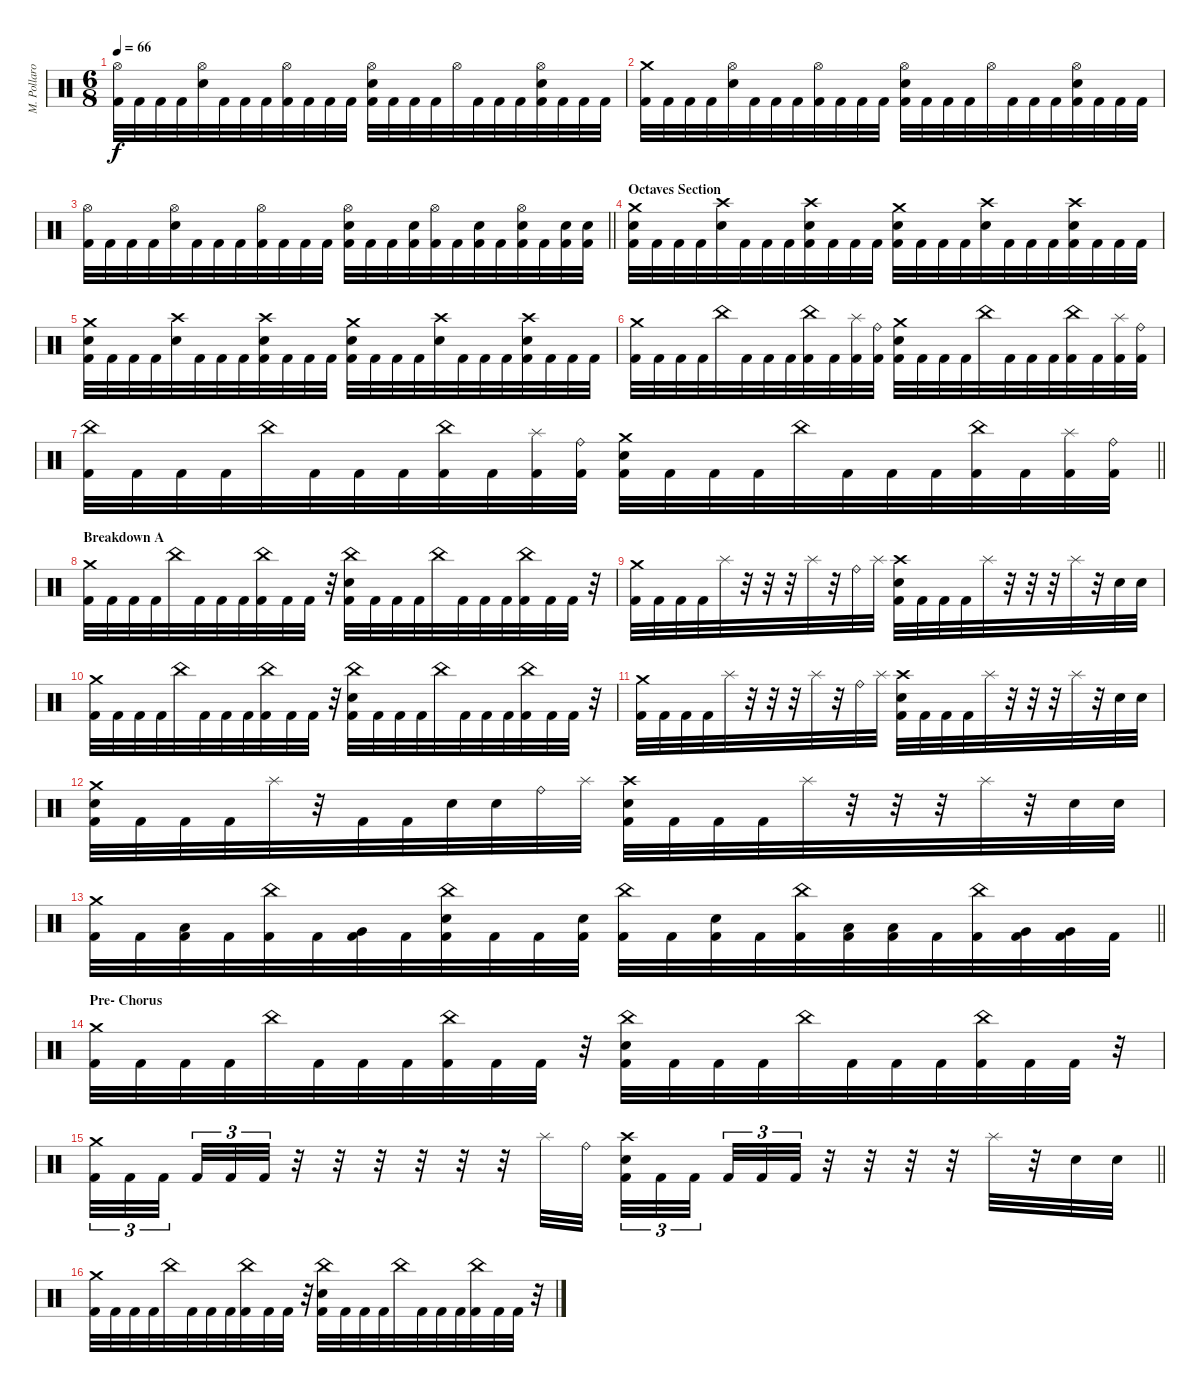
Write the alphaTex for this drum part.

\track ("M. Pollaro" "M. Pollaro") {instrument percussion}
\staff {score}
\articulation defaults
\ts (6 8)
\tempo 66
\clef neutral
\ks aminor
("Hi-Hat (open)" "Kick (hit) 2").32{dy f} "Kick (hit) 2".32 "Kick (hit) 2".32 "Kick (hit) 2".32 ("Hi-Hat (open)" "Snare (hit) 2").32 "Kick (hit) 2".32 "Kick (hit) 2".32 "Kick (hit) 2".32 ("Hi-Hat (open)" "Kick (hit) 2").32 "Kick (hit) 2".32 "Kick (hit) 2".32 "Kick (hit) 2".32 ("Hi-Hat (open)" "Snare (hit) 2" "Kick (hit) 2").32 "Kick (hit) 2".32 "Kick (hit) 2".32 "Kick (hit) 2".32 "Hi-Hat (open)".32 "Kick (hit) 2".32 "Kick (hit) 2".32 "Kick (hit) 2".32 ("Hi-Hat (open)" "Snare (hit) 2" "Kick (hit) 2").32 "Kick (hit) 2".32 "Kick (hit) 2".32 "Kick (hit) 2".32 |
("Crash medium (hit)" "Kick (hit) 2").32 "Kick (hit) 2".32 "Kick (hit) 2".32 "Kick (hit) 2".32 ("Hi-Hat (open)" "Snare (hit) 2").32 "Kick (hit) 2".32 "Kick (hit) 2".32 "Kick (hit) 2".32 ("Hi-Hat (open)" "Kick (hit) 2").32 "Kick (hit) 2".32 "Kick (hit) 2".32 "Kick (hit) 2".32 ("Hi-Hat (open)" "Snare (hit) 2" "Kick (hit) 2").32 "Kick (hit) 2".32 "Kick (hit) 2".32 "Kick (hit) 2".32 "Hi-Hat (open)".32 "Kick (hit) 2".32 "Kick (hit) 2".32 "Kick (hit) 2".32 ("Hi-Hat (open)" "Snare (hit) 2" "Kick (hit) 2").32 "Kick (hit) 2".32 "Kick (hit) 2".32 "Kick (hit) 2".32 |
\barLineRight lightlight
("Hi-Hat (open)" "Kick (hit) 2").32 "Kick (hit) 2".32 "Kick (hit) 2".32 "Kick (hit) 2".32 ("Hi-Hat (open)" "Snare (hit) 2").32 "Kick (hit) 2".32 "Kick (hit) 2".32 "Kick (hit) 2".32 ("Hi-Hat (open)" "Kick (hit) 2").32 "Kick (hit) 2".32 "Kick (hit) 2".32 "Kick (hit) 2".32 ("Hi-Hat (open)" "Snare (hit) 2" "Kick (hit) 2").32 "Kick (hit) 2".32 "Kick (hit) 2".32 ("Snare (hit) 2" "Kick (hit) 2").32 ("Hi-Hat (open)" "Kick (hit) 2").32 "Kick (hit) 2".32 ("Snare (hit) 2" "Kick (hit) 2").32 "Kick (hit) 2".32 ("Hi-Hat (open)" "Snare (hit) 2" "Kick (hit) 2").32 "Kick (hit) 2".32 ("Snare (hit) 2" "Kick (hit) 2").32 ("Snare (hit) 2" "Kick (hit) 2").32 |
\section ("" "Octaves Section")
("Crash medium (hit)" "Snare (hit) 2" "Kick (hit) 2").32 "Kick (hit) 2".32 "Kick (hit) 2".32 "Kick (hit) 2".32 ("Crash high (hit)" "Snare (hit) 2").32 "Kick (hit) 2".32 "Kick (hit) 2".32 "Kick (hit) 2".32 ("Crash high (hit)" "Snare (hit) 2" "Kick (hit) 2").32 "Kick (hit) 2".32 "Kick (hit) 2".32 "Kick (hit) 2".32 ("Crash medium (hit)" "Snare (hit) 2" "Kick (hit) 2").32 "Kick (hit) 2".32 "Kick (hit) 2".32 "Kick (hit) 2".32 ("Crash high (hit)" "Snare (hit) 2").32 "Kick (hit) 2".32 "Kick (hit) 2".32 "Kick (hit) 2".32 ("Crash high (hit)" "Snare (hit) 2" "Kick (hit) 2").32 "Kick (hit) 2".32 "Kick (hit) 2".32 "Kick (hit) 2".32 |
("Crash medium (hit)" "Snare (hit) 2" "Kick (hit) 2").32 "Kick (hit) 2".32 "Kick (hit) 2".32 "Kick (hit) 2".32 ("Crash high (hit)" "Snare (hit) 2").32 "Kick (hit) 2".32 "Kick (hit) 2".32 "Kick (hit) 2".32 ("Crash high (hit)" "Snare (hit) 2" "Kick (hit) 2").32 "Kick (hit) 2".32 "Kick (hit) 2".32 "Kick (hit) 2".32 ("Crash medium (hit)" "Snare (hit) 2" "Kick (hit) 2").32 "Kick (hit) 2".32 "Kick (hit) 2".32 "Kick (hit) 2".32 ("Crash high (hit)" "Snare (hit) 2").32 "Kick (hit) 2".32 "Kick (hit) 2".32 "Kick (hit) 2".32 ("Crash high (hit)" "Snare (hit) 2" "Kick (hit) 2").32 "Kick (hit) 2".32 "Kick (hit) 2".32 "Kick (hit) 2".32 |
("Crash medium (hit)" "Kick (hit) 2").32 "Kick (hit) 2".32 "Kick (hit) 2".32 "Kick (hit) 2".32 "China (hit)".32 "Kick (hit) 2".32 "Kick (hit) 2".32 "Kick (hit) 2".32 ("China (hit)" "Kick (hit) 2").32 "Kick (hit) 2".32 ("Splash (hit)" "Kick (hit) 2").32 ("Ride (bell)" "Kick (hit) 2").32 ("Crash medium (hit)" "Snare (hit) 2" "Kick (hit) 2").32 "Kick (hit) 2".32 "Kick (hit) 2".32 "Kick (hit) 2".32 "China (hit)".32 "Kick (hit) 2".32 "Kick (hit) 2".32 "Kick (hit) 2".32 ("China (hit)" "Kick (hit) 2").32 "Kick (hit) 2".32 ("Splash (hit)" "Kick (hit) 2").32 ("Ride (bell)" "Kick (hit) 2").32 |
\barLineRight lightlight
("China (hit)" "Kick (hit) 2").32 "Kick (hit) 2".32 "Kick (hit) 2".32 "Kick (hit) 2".32 "China (hit)".32 "Kick (hit) 2".32 "Kick (hit) 2".32 "Kick (hit) 2".32 ("China (hit)" "Kick (hit) 2").32 "Kick (hit) 2".32 ("Splash (hit)" "Kick (hit) 2").32 ("Ride (bell)" "Kick (hit) 2").32 ("Crash medium (hit)" "Snare (hit) 2" "Kick (hit) 2").32 "Kick (hit) 2".32 "Kick (hit) 2".32 "Kick (hit) 2".32 "China (hit)".32 "Kick (hit) 2".32 "Kick (hit) 2".32 "Kick (hit) 2".32 ("China (hit)" "Kick (hit) 2").32 "Kick (hit) 2".32 ("Splash (hit)" "Kick (hit) 2").32 ("Ride (bell)" "Kick (hit) 2").32 |
\section ("" "Breakdown A")
("Crash medium (hit)" "Kick (hit) 2").32 "Kick (hit) 2".32 "Kick (hit) 2".32 "Kick (hit) 2".32 "China (hit)".32 "Kick (hit) 2".32 "Kick (hit) 2".32 "Kick (hit) 2".32 ("China (hit)" "Kick (hit) 2").32 "Kick (hit) 2".32 "Kick (hit) 2".32 r.32 ("China (hit)" "Snare (hit) 2" "Kick (hit) 2").32 "Kick (hit) 2".32 "Kick (hit) 2".32 "Kick (hit) 2".32 "China (hit)".32 "Kick (hit) 2".32 "Kick (hit) 2".32 "Kick (hit) 2".32 ("China (hit)" "Kick (hit) 2").32 "Kick (hit) 2".32 "Kick (hit) 2".32 r.32 |
("Crash medium (hit)" "Kick (hit) 2").32 "Kick (hit) 2".32 "Kick (hit) 2".32 "Kick (hit) 2".32 "Splash (hit)".32 r.32 r.32 r.32 "Splash (hit)".32 r.32 "Ride (bell)".32 "Splash (hit)".32 ("Crash high (hit)" "Snare (hit) 2" "Kick (hit) 2").32 "Kick (hit) 2".32 "Kick (hit) 2".32 "Kick (hit) 2".32 "Splash (hit)".32 r.32 r.32 r.32 "Splash (hit)".32 r.32 "Snare (hit) 2".32 "Snare (hit) 2".32 |
("Crash medium (hit)" "Kick (hit) 2").32 "Kick (hit) 2".32 "Kick (hit) 2".32 "Kick (hit) 2".32 "China (hit)".32 "Kick (hit) 2".32 "Kick (hit) 2".32 "Kick (hit) 2".32 ("China (hit)" "Kick (hit) 2").32 "Kick (hit) 2".32 "Kick (hit) 2".32 r.32 ("China (hit)" "Snare (hit) 2" "Kick (hit) 2").32 "Kick (hit) 2".32 "Kick (hit) 2".32 "Kick (hit) 2".32 "China (hit)".32 "Kick (hit) 2".32 "Kick (hit) 2".32 "Kick (hit) 2".32 ("China (hit)" "Kick (hit) 2").32 "Kick (hit) 2".32 "Kick (hit) 2".32 r.32 |
("Crash medium (hit)" "Kick (hit) 2").32 "Kick (hit) 2".32 "Kick (hit) 2".32 "Kick (hit) 2".32 "Splash (hit)".32 r.32 r.32 r.32 "Splash (hit)".32 r.32 "Ride (bell)".32 "Splash (hit)".32 ("Crash high (hit)" "Snare (hit) 2" "Kick (hit) 2").32 "Kick (hit) 2".32 "Kick (hit) 2".32 "Kick (hit) 2".32 "Splash (hit)".32 r.32 r.32 r.32 "Splash (hit)".32 r.32 "Snare (hit) 2".32 "Snare (hit) 2".32 |
("Crash medium (hit)" "Snare (hit) 2" "Kick (hit) 2").32 "Kick (hit) 2".32 "Kick (hit) 2".32 "Kick (hit) 2".32 "Splash (hit)".32 r.32 "Kick (hit) 2".32 "Kick (hit) 2".32 "Snare (hit) 2".32 "Snare (hit) 2".32 "Ride (bell)".32 "Splash (hit)".32 ("Crash high (hit)" "Snare (hit) 2" "Kick (hit) 2").32 "Kick (hit) 2".32 "Kick (hit) 2".32 "Kick (hit) 2".32 "Splash (hit)".32 r.32 r.32 r.32 "Splash (hit)".32 r.32 "Snare (hit) 2".32 "Snare (hit) 2".32 |
\barLineRight lightlight
("Crash medium (hit)" "Kick (hit) 2").32 "Kick (hit) 2".32 ("Low Tom (hit)" "Kick (hit) 2").32 "Kick (hit) 2".32 ("China (hit)" "Kick (hit) 2").32 "Kick (hit) 2".32 ("Very Low Tom (hit)" "Kick (hit) 2").32 "Kick (hit) 2".32 ("China (hit)" "Snare (hit) 2" "Kick (hit) 2").32 "Kick (hit) 2".32 "Kick (hit) 2".32 ("Snare (hit) 2" "Kick (hit) 2").32 ("China (hit)" "Kick (hit) 2").32 "Kick (hit) 2".32 ("Snare (hit) 2" "Kick (hit) 2").32 "Kick (hit) 2".32 ("China (hit)" "Kick (hit) 2").32 ("Low Tom (hit)" "Kick (hit) 2").32 ("Low Tom (hit)" "Kick (hit) 2").32 "Kick (hit) 2".32 ("China (hit)" "Kick (hit) 2").32 ("Very Low Tom (hit)" "Kick (hit) 2").32 ("Very Low Tom (hit)" "Kick (hit) 2").32 "Kick (hit) 2".32 |
\section ("" "Pre- Chorus")
("Crash medium (hit)" "Kick (hit) 2").32 "Kick (hit) 2".32 "Kick (hit) 2".32 "Kick (hit) 2".32 "China (hit)".32 "Kick (hit) 2".32 "Kick (hit) 2".32 "Kick (hit) 2".32 ("China (hit)" "Kick (hit) 2").32 "Kick (hit) 2".32 "Kick (hit) 2".32 r.32 ("China (hit)" "Snare (hit) 2" "Kick (hit) 2").32 "Kick (hit) 2".32 "Kick (hit) 2".32 "Kick (hit) 2".32 "China (hit)".32 "Kick (hit) 2".32 "Kick (hit) 2".32 "Kick (hit) 2".32 ("China (hit)" "Kick (hit) 2").32 "Kick (hit) 2".32 "Kick (hit) 2".32 r.32 |
\barLineRight lightlight
("Crash medium (hit)" "Kick (hit) 2").32{tu (3 2)} "Kick (hit) 2".32{tu (3 2)} "Kick (hit) 2".32{tu (3 2) beam splitsecondary} "Kick (hit) 2".32{tu (3 2)} "Kick (hit) 2".32{tu (3 2)} "Kick (hit) 2".32{tu (3 2)} r.32 r.32 r.32 r.32 r.32 r.32 "Splash (hit)".32 "Ride (bell)".32 ("Crash high (hit)" "Snare (hit) 2" "Kick (hit) 2").32{tu (3 2)} "Kick (hit) 2".32{tu (3 2)} "Kick (hit) 2".32{tu (3 2) beam splitsecondary} "Kick (hit) 2".32{tu (3 2)} "Kick (hit) 2".32{tu (3 2)} "Kick (hit) 2".32{tu (3 2)} r.32 r.32 r.32 r.32 "Splash (hit)".32 r.32 "Snare (hit) 2".32 "Snare (hit) 2".32 |
("Crash medium (hit)" "Kick (hit) 2").32 "Kick (hit) 2".32 "Kick (hit) 2".32 "Kick (hit) 2".32 "China (hit)".32 "Kick (hit) 2".32 "Kick (hit) 2".32 "Kick (hit) 2".32 ("China (hit)" "Kick (hit) 2").32 "Kick (hit) 2".32 "Kick (hit) 2".32 r.32 ("China (hit)" "Snare (hit) 2" "Kick (hit) 2").32 "Kick (hit) 2".32 "Kick (hit) 2".32 "Kick (hit) 2".32 "China (hit)".32 "Kick (hit) 2".32 "Kick (hit) 2".32 "Kick (hit) 2".32 ("China (hit)" "Kick (hit) 2").32 "Kick (hit) 2".32 "Kick (hit) 2".32 r.32
